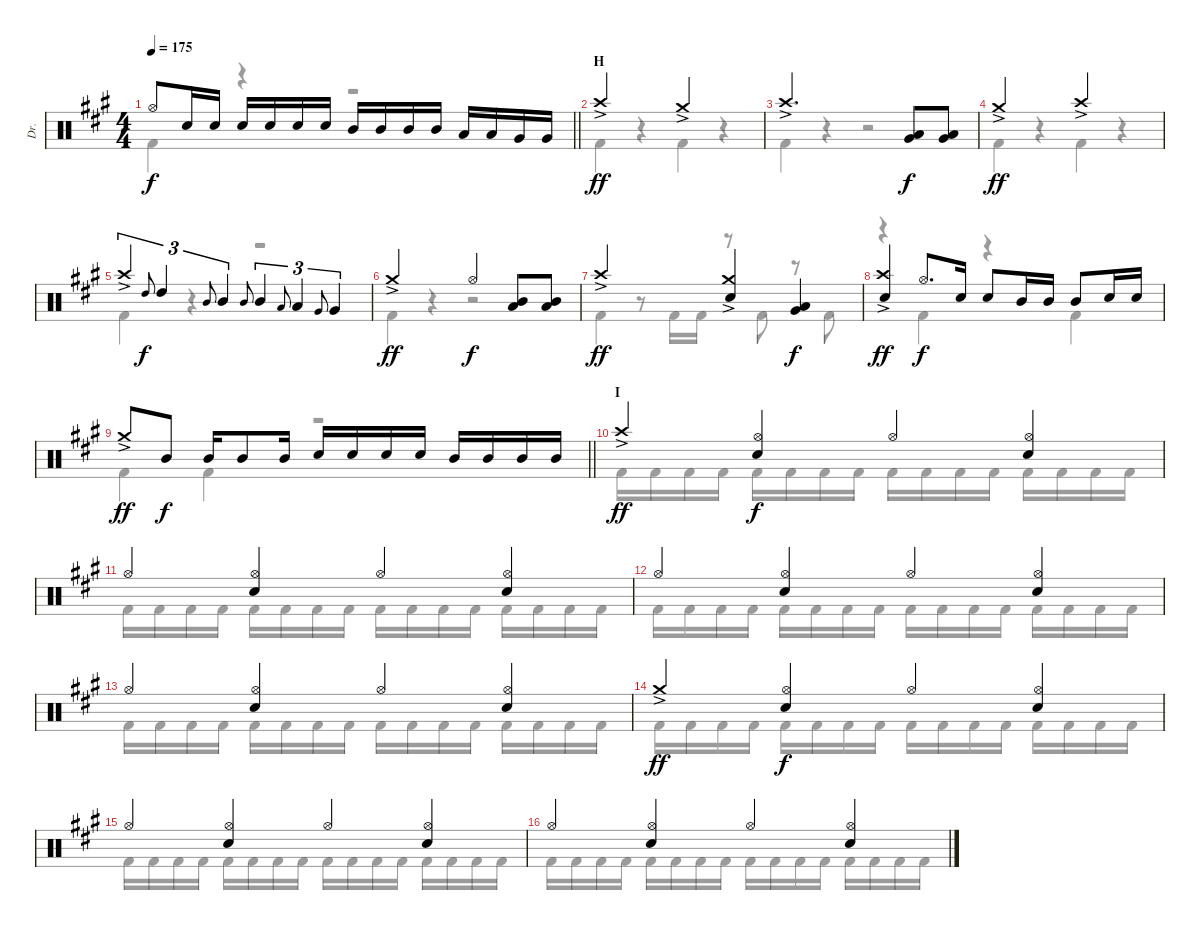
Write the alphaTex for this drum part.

\track ("Dr." "Dr.") {instrument percussion}
\staff {score}
\articulation defaults
\voice
\ts (4 4)
\tempo 175
\clef neutral
\barLineRight lightlight
\ks f#minor "Hi-Hat (open)".8{dy f} "Electric Snare (hit)".16 "Electric Snare (hit)".16 "Electric Snare (hit)".16 "Electric Snare (hit)".16 "Electric Snare (hit)".16 "Electric Snare (hit)".16 "Mid Tom (hit)".16 "Mid Tom (hit)".16 "Mid Tom (hit)".16 "Mid Tom (hit)".16 "Low Tom (hit)".16 "Low Tom (hit)".16 "Very Low Tom (hit)".16 "Very Low Tom (hit)".16
|
\section ("" "H")
"Crash high (hit)"{ac}.2{dy ff} "Crash medium (hit)"{ac}.2 |
"Crash high (hit)"{ac}.2{d} ("Low Tom (hit)" "Very Low Tom (hit)").8{dy f} ("Low Tom (hit)" "Very Low Tom (hit)").8 |
"Crash medium (hit)"{ac}.2{dy ff} "Crash high (hit)"{ac}.2 |
"Crash high (hit)"{ac}.4{tu (3 2)} "High Tom (hit)".8{gr onbeat dy f} "High Tom (hit)".4{tu (3 2)} "Mid Tom (hit)".8{gr onbeat} "Mid Tom (hit)".4{tu (3 2)} "Mid Tom (hit)".8{gr onbeat} "Mid Tom (hit)".4{tu (3 2)} "Low Tom (hit)".8{gr onbeat} "Low Tom (hit)".4{tu (3 2)} "Very Low Tom (hit)".8{gr onbeat} "Very Low Tom (hit)".4{tu (3 2)} |
"Crash medium (hit)"{ac}.2{dy ff} "Hi-Hat (open)".4{dy f} ("Mid Tom (hit)" "Low Tom (hit)").8 ("Mid Tom (hit)" "Low Tom (hit)").8 |
"Crash high (hit)"{ac}.2{dy ff} ("Crash medium (hit)"{ac} "Electric Snare (hit)").4 ("Low Tom (hit)" "Very Low Tom (hit)").4{dy f} |
("Crash high (hit)"{ac} "Electric Snare (hit)").4{dy ff} "Hi-Hat (open)".8{d dy f} "Electric Snare (hit)".16 "Electric Snare (hit)".8 "Mid Tom (hit)".16 "Mid Tom (hit)".16 "Mid Tom (hit)".8 "Electric Snare (hit)".16 "Electric Snare (hit)".16 |
\barLineRight lightlight "Crash medium (hit)"{ac}.8{dy ff} "Mid Tom (hit)".8{dy f} "Mid Tom (hit)".16 "Mid Tom (hit)".8 "Mid Tom (hit)".16 "Electric Snare (hit)".16 "Electric Snare (hit)".16 "Electric Snare (hit)".16 "Electric Snare (hit)".16 "Mid Tom (hit)".16 "Mid Tom (hit)".16 "Mid Tom (hit)".16 "Mid Tom (hit)".16
|
\section ("" "I")
"Crash high (hit)"{ac}.4{dy ff} ("Hi-Hat (open)" "Electric Snare (hit)").4{dy f} "Hi-Hat (open)".4 ("Hi-Hat (open)" "Electric Snare (hit)").4 |
"Hi-Hat (open)".4 ("Hi-Hat (open)" "Electric Snare (hit)").4 "Hi-Hat (open)".4 ("Hi-Hat (open)" "Electric Snare (hit)").4 |
"Hi-Hat (open)".4 ("Hi-Hat (open)" "Electric Snare (hit)").4 "Hi-Hat (open)".4 ("Hi-Hat (open)" "Electric Snare (hit)").4 |
"Hi-Hat (open)".4 ("Hi-Hat (open)" "Electric Snare (hit)").4 "Hi-Hat (open)".4 ("Hi-Hat (open)" "Electric Snare (hit)").4 |
"Crash medium (hit)"{ac}.4{dy ff} ("Hi-Hat (open)" "Electric Snare (hit)").4{dy f} "Hi-Hat (open)".4 ("Hi-Hat (open)" "Electric Snare (hit)").4 |
"Hi-Hat (open)".4 ("Hi-Hat (open)" "Electric Snare (hit)").4 "Hi-Hat (open)".4 ("Hi-Hat (open)" "Electric Snare (hit)").4 |
"Hi-Hat (open)".4 ("Hi-Hat (open)" "Electric Snare (hit)").4 "Hi-Hat (open)".4 ("Hi-Hat (open)" "Electric Snare (hit)").4
\voice
\clef neutral
\ottava regular
\simile none
\barLineRight lightlight
\ks f#minor "Kick (hit) 2".4{dy f}
r.4 r.2 |
"Kick (hit) 2".4 r.4 "Kick (hit) 2".4 r.4 |
"Kick (hit) 2".4 r.4 r.2 |
"Kick (hit) 2".4 r.4 "Kick (hit) 2".4 r.4 |
"Kick (hit) 2".4 r.4 r.2 |
"Kick (hit) 2".4 r.4 r.2 |
"Kick (hit) 2".4 r.8 "Kick (hit) 2".16 "Kick (hit) 2".16 r.8 "Kick (hit) 2".8 r.8 "Kick (hit) 2".8 |
r.4 "Kick (hit) 2".4 r.4 "Kick (hit) 2".4 |
\barLineRight lightlight "Kick (hit) 2".4 "Kick (hit) 2".4
r.2 |
"Kick (hit) 2".16 "Kick (hit) 2".16 "Kick (hit) 2".16 "Kick (hit) 2".16 "Kick (hit) 2".16 "Kick (hit) 2".16 "Kick (hit) 2".16 "Kick (hit) 2".16 "Kick (hit) 2".16 "Kick (hit) 2".16 "Kick (hit) 2".16 "Kick (hit) 2".16 "Kick (hit) 2".16 "Kick (hit) 2".16 "Kick (hit) 2".16 "Kick (hit) 2".16 |
"Kick (hit) 2".16 "Kick (hit) 2".16 "Kick (hit) 2".16 "Kick (hit) 2".16 "Kick (hit) 2".16 "Kick (hit) 2".16 "Kick (hit) 2".16 "Kick (hit) 2".16 "Kick (hit) 2".16 "Kick (hit) 2".16 "Kick (hit) 2".16 "Kick (hit) 2".16 "Kick (hit) 2".16 "Kick (hit) 2".16 "Kick (hit) 2".16 "Kick (hit) 2".16 |
"Kick (hit) 2".16 "Kick (hit) 2".16 "Kick (hit) 2".16 "Kick (hit) 2".16 "Kick (hit) 2".16 "Kick (hit) 2".16 "Kick (hit) 2".16 "Kick (hit) 2".16 "Kick (hit) 2".16 "Kick (hit) 2".16 "Kick (hit) 2".16 "Kick (hit) 2".16 "Kick (hit) 2".16 "Kick (hit) 2".16 "Kick (hit) 2".16 "Kick (hit) 2".16 |
"Kick (hit) 2".16 "Kick (hit) 2".16 "Kick (hit) 2".16 "Kick (hit) 2".16 "Kick (hit) 2".16 "Kick (hit) 2".16 "Kick (hit) 2".16 "Kick (hit) 2".16 "Kick (hit) 2".16 "Kick (hit) 2".16 "Kick (hit) 2".16 "Kick (hit) 2".16 "Kick (hit) 2".16 "Kick (hit) 2".16 "Kick (hit) 2".16 "Kick (hit) 2".16 |
"Kick (hit) 2".16 "Kick (hit) 2".16 "Kick (hit) 2".16 "Kick (hit) 2".16 "Kick (hit) 2".16 "Kick (hit) 2".16 "Kick (hit) 2".16 "Kick (hit) 2".16 "Kick (hit) 2".16 "Kick (hit) 2".16 "Kick (hit) 2".16 "Kick (hit) 2".16 "Kick (hit) 2".16 "Kick (hit) 2".16 "Kick (hit) 2".16 "Kick (hit) 2".16 |
"Kick (hit) 2".16 "Kick (hit) 2".16 "Kick (hit) 2".16 "Kick (hit) 2".16 "Kick (hit) 2".16 "Kick (hit) 2".16 "Kick (hit) 2".16 "Kick (hit) 2".16 "Kick (hit) 2".16 "Kick (hit) 2".16 "Kick (hit) 2".16 "Kick (hit) 2".16 "Kick (hit) 2".16 "Kick (hit) 2".16 "Kick (hit) 2".16 "Kick (hit) 2".16 |
"Kick (hit) 2".16 "Kick (hit) 2".16 "Kick (hit) 2".16 "Kick (hit) 2".16 "Kick (hit) 2".16 "Kick (hit) 2".16 "Kick (hit) 2".16 "Kick (hit) 2".16 "Kick (hit) 2".16 "Kick (hit) 2".16 "Kick (hit) 2".16 "Kick (hit) 2".16 "Kick (hit) 2".16 "Kick (hit) 2".16 "Kick (hit) 2".16 "Kick (hit) 2".16
